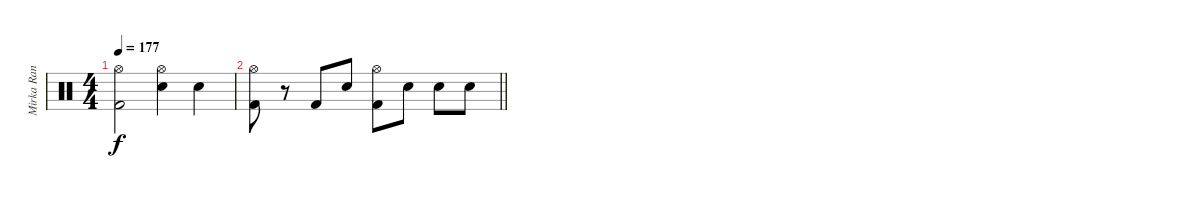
\track (" Mirka Rantanen" " Mirka Ran") {instrument percussion}
\staff {score}
\articulation defaults
\ts (4 4)
\tempo 177
\clef neutral
\ks c
("Hi-Hat (open)" "Kick (hit) 2").2{dy f} ("Hi-Hat (open)" "Electric Snare (hit)").4 "Electric Snare (hit)".4 |
\barLineRight lightlight
("Hi-Hat (open)" "Kick (hit) 2").8 r.8 "Kick (hit) 2".8 "Electric Snare (hit)".8 ("Hi-Hat (open)" "Kick (hit) 2").8 "Electric Snare (hit)".8 "Electric Snare (hit)".8 "Electric Snare (hit)".8
